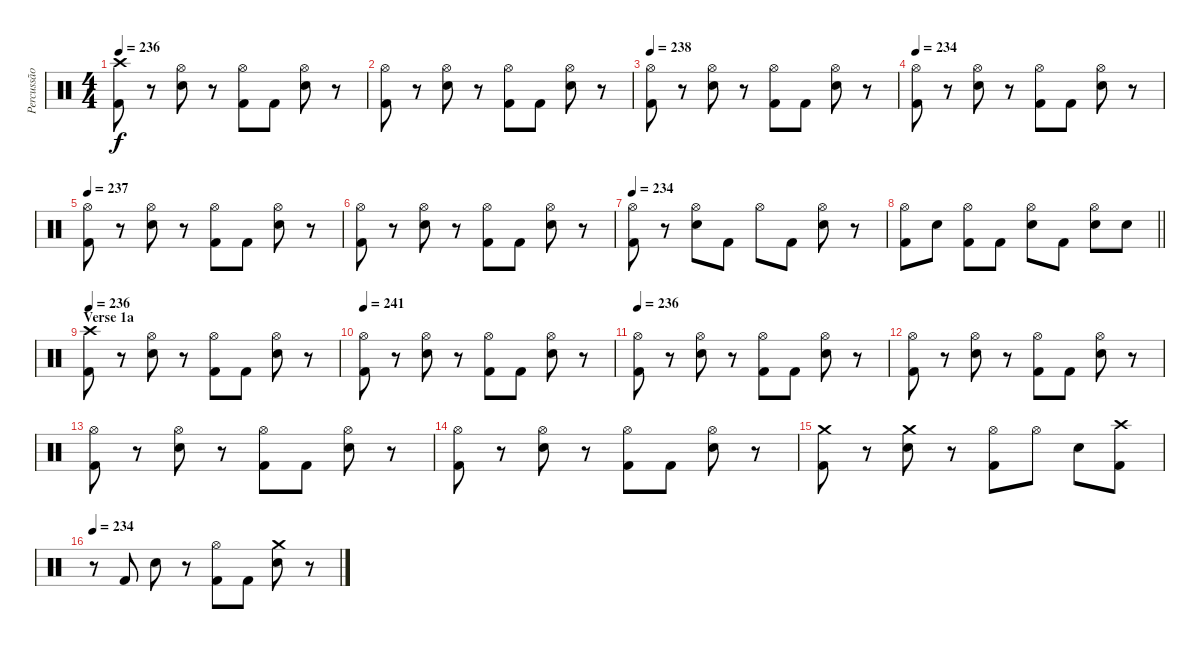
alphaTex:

\track ("Percussão" "Percussão") {instrument percussion}
\staff {score}
\articulation defaults
\ts (4 4)
\tempo 236
\clef neutral
\ks c
("Crash high (hit)" "Kick (hit) 2").8{dy f} r.8 ("Hi-Hat (open)" "Electric Snare (hit)").8 r.8 ("Hi-Hat (open)" "Kick (hit) 2").8 "Kick (hit) 2".8 ("Hi-Hat (open)" "Electric Snare (hit)").8 r.8 |
("Hi-Hat (open)" "Kick (hit) 2").8 r.8 ("Hi-Hat (open)" "Electric Snare (hit)").8 r.8 ("Hi-Hat (open)" "Kick (hit) 2").8 "Kick (hit) 2".8 ("Hi-Hat (open)" "Electric Snare (hit)").8 r.8 |
\tempo 238
("Hi-Hat (open)" "Kick (hit) 2").8 r.8 ("Hi-Hat (open)" "Electric Snare (hit)").8 r.8 ("Hi-Hat (open)" "Kick (hit) 2").8 "Kick (hit) 2".8 ("Hi-Hat (open)" "Electric Snare (hit)").8 r.8 |
\tempo 234
("Hi-Hat (open)" "Kick (hit) 2").8 r.8 ("Hi-Hat (open)" "Electric Snare (hit)").8 r.8 ("Hi-Hat (open)" "Kick (hit) 2").8 "Kick (hit) 2".8 ("Hi-Hat (open)" "Electric Snare (hit)").8 r.8 |
\tempo 237
("Hi-Hat (open)" "Kick (hit) 2").8 r.8 ("Hi-Hat (open)" "Electric Snare (hit)").8 r.8 ("Hi-Hat (open)" "Kick (hit) 2").8 "Kick (hit) 2".8 ("Hi-Hat (open)" "Electric Snare (hit)").8 r.8 |
("Hi-Hat (open)" "Kick (hit) 2").8 r.8 ("Hi-Hat (open)" "Electric Snare (hit)").8 r.8 ("Hi-Hat (open)" "Kick (hit) 2").8 "Kick (hit) 2".8 ("Hi-Hat (open)" "Electric Snare (hit)").8 r.8 |
\tempo 234
("Hi-Hat (open)" "Kick (hit) 2").8 r.8 ("Hi-Hat (open)" "Electric Snare (hit)").8 "Kick (hit) 2".8 "Hi-Hat (open)".8 "Kick (hit) 2".8 ("Hi-Hat (open)" "Electric Snare (hit)").8 r.8 |
\barLineRight lightlight
("Hi-Hat (open)" "Kick (hit) 2").8 "Electric Snare (hit)".8 ("Hi-Hat (open)" "Kick (hit) 2").8 "Kick (hit) 2".8 ("Hi-Hat (open)" "Electric Snare (hit)").8 "Kick (hit) 2".8 ("Hi-Hat (open)" "Electric Snare (hit)").8 "Electric Snare (hit)".8 |
\section ("" "Verse 1a")
\tempo 236
("Crash high (hit)" "Kick (hit) 2").8 r.8 ("Hi-Hat (open)" "Electric Snare (hit)").8 r.8 ("Hi-Hat (open)" "Kick (hit) 2").8 "Kick (hit) 2".8 ("Hi-Hat (open)" "Electric Snare (hit)").8 r.8 |
\tempo 241
("Hi-Hat (open)" "Kick (hit) 2").8 r.8 ("Hi-Hat (open)" "Electric Snare (hit)").8 r.8 ("Hi-Hat (open)" "Kick (hit) 2").8 "Kick (hit) 2".8 ("Hi-Hat (open)" "Electric Snare (hit)").8 r.8 |
\tempo 236
("Hi-Hat (open)" "Kick (hit) 2").8 r.8 ("Hi-Hat (open)" "Electric Snare (hit)").8 r.8 ("Hi-Hat (open)" "Kick (hit) 2").8 "Kick (hit) 2".8 ("Hi-Hat (open)" "Electric Snare (hit)").8 r.8 |
("Hi-Hat (open)" "Kick (hit) 2").8 r.8 ("Hi-Hat (open)" "Electric Snare (hit)").8 r.8 ("Hi-Hat (open)" "Kick (hit) 2").8 "Kick (hit) 2".8 ("Hi-Hat (open)" "Electric Snare (hit)").8 r.8 |
("Hi-Hat (open)" "Kick (hit) 2").8 r.8 ("Hi-Hat (open)" "Electric Snare (hit)").8 r.8 ("Hi-Hat (open)" "Kick (hit) 2").8 "Kick (hit) 2".8 ("Hi-Hat (open)" "Electric Snare (hit)").8 r.8 |
("Hi-Hat (open)" "Kick (hit) 2").8 r.8 ("Hi-Hat (open)" "Electric Snare (hit)").8 r.8 ("Hi-Hat (open)" "Kick (hit) 2").8 "Kick (hit) 2".8 ("Hi-Hat (open)" "Electric Snare (hit)").8 r.8 |
("Crash medium (hit)" "Kick (hit) 2").8 r.8 ("Crash medium (hit)" "Electric Snare (hit)").8 r.8 ("Hi-Hat (open)" "Kick (hit) 2").8 "Hi-Hat (open)".8 "Electric Snare (hit)".8 ("Crash high (hit)" "Kick (hit) 2").8 |
\tempo 234
r.8 "Kick (hit) 2".8 "Electric Snare (hit)".8 r.8 ("Hi-Hat (open)" "Kick (hit) 2").8 "Kick (hit) 2".8 ("Crash medium (hit)" "Electric Snare (hit)").8 r.8
